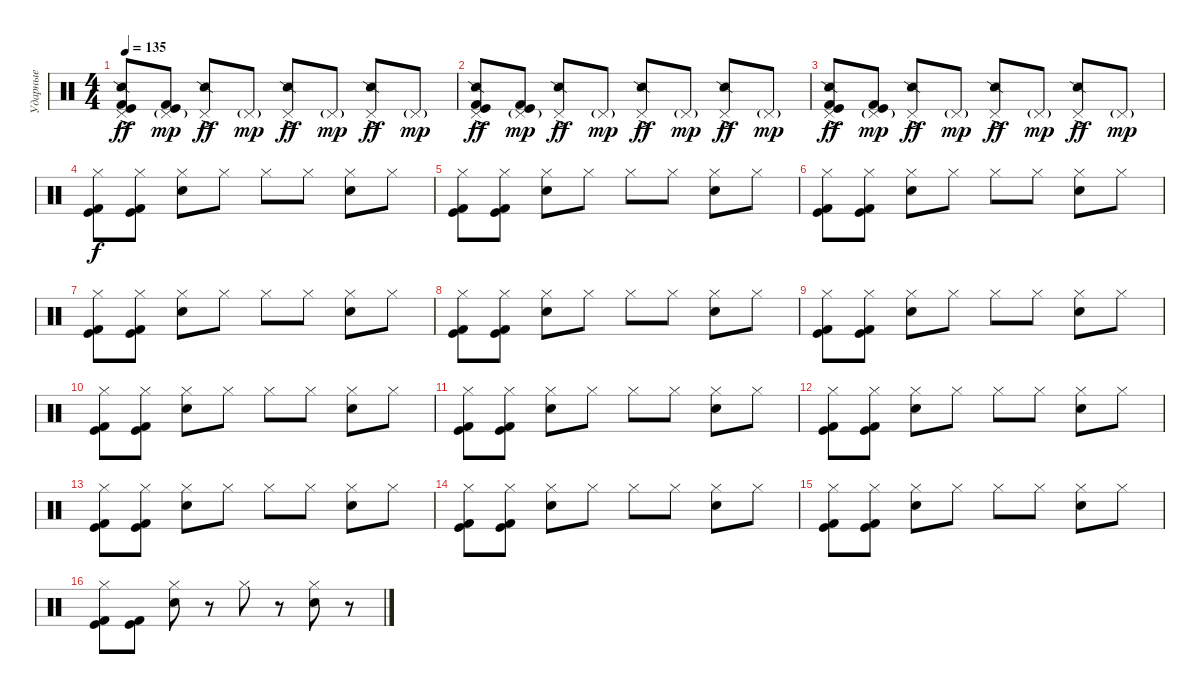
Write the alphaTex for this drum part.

\track ("Ударные" "Ударные") {instrument percussion}
\staff {score}
\articulation defaults
\ts (4 4)
\tempo 135
\clef neutral
\ks c
("Pedal Hi-Hat (hit)"{ac} "Kick (hit)" "Kick (hit) 2" "Snare (side stick) 2").8{dy ff} ("Pedal Hi-Hat (hit)"{g} "Kick (hit)" "Kick (hit) 2").8{dy mp} ("Pedal Hi-Hat (hit)"{ac} "Snare (side stick) 2").8{dy ff} "Pedal Hi-Hat (hit)"{g}.8{dy mp} ("Pedal Hi-Hat (hit)"{ac} "Snare (side stick) 2").8{dy ff} "Pedal Hi-Hat (hit)"{g}.8{dy mp} ("Pedal Hi-Hat (hit)"{ac} "Snare (side stick) 2").8{dy ff} "Pedal Hi-Hat (hit)"{g}.8{dy mp} |
("Pedal Hi-Hat (hit)"{ac} "Kick (hit)" "Kick (hit) 2" "Snare (side stick) 2").8{dy ff} ("Pedal Hi-Hat (hit)"{g} "Kick (hit)" "Kick (hit) 2").8{dy mp} ("Pedal Hi-Hat (hit)"{ac} "Snare (side stick) 2").8{dy ff} "Pedal Hi-Hat (hit)"{g}.8{dy mp} ("Pedal Hi-Hat (hit)"{ac} "Snare (side stick) 2").8{dy ff} "Pedal Hi-Hat (hit)"{g}.8{dy mp} ("Pedal Hi-Hat (hit)"{ac} "Snare (side stick) 2").8{dy ff} "Pedal Hi-Hat (hit)"{g}.8{dy mp} |
("Pedal Hi-Hat (hit)"{ac} "Kick (hit)" "Kick (hit) 2" "Snare (side stick) 2").8{dy ff} ("Pedal Hi-Hat (hit)"{g} "Kick (hit)" "Kick (hit) 2").8{dy mp} ("Pedal Hi-Hat (hit)"{ac} "Snare (side stick) 2").8{dy ff} "Pedal Hi-Hat (hit)"{g}.8{dy mp} ("Pedal Hi-Hat (hit)"{ac} "Snare (side stick) 2").8{dy ff} "Pedal Hi-Hat (hit)"{g}.8{dy mp} ("Pedal Hi-Hat (hit)"{ac} "Snare (side stick) 2").8{dy ff} "Pedal Hi-Hat (hit)"{g}.8{dy mp} |
("Hi-Hat (closed)" "Kick (hit)" "Kick (hit) 2").8{dy f} ("Hi-Hat (closed)" "Kick (hit)" "Kick (hit) 2").8 ("Hi-Hat (closed)" "Electric Snare (hit)").8 "Hi-Hat (closed)".8 "Hi-Hat (closed)".8 "Hi-Hat (closed)".8 ("Hi-Hat (closed)" "Electric Snare (hit)").8 "Hi-Hat (closed)".8 |
("Hi-Hat (closed)" "Kick (hit)" "Kick (hit) 2").8 ("Hi-Hat (closed)" "Kick (hit)" "Kick (hit) 2").8 ("Hi-Hat (closed)" "Electric Snare (hit)").8 "Hi-Hat (closed)".8 "Hi-Hat (closed)".8 "Hi-Hat (closed)".8 ("Hi-Hat (closed)" "Electric Snare (hit)").8 "Hi-Hat (closed)".8 |
("Hi-Hat (closed)" "Kick (hit)" "Kick (hit) 2").8 ("Hi-Hat (closed)" "Kick (hit)" "Kick (hit) 2").8 ("Hi-Hat (closed)" "Electric Snare (hit)").8 "Hi-Hat (closed)".8 "Hi-Hat (closed)".8 "Hi-Hat (closed)".8 ("Hi-Hat (closed)" "Electric Snare (hit)").8 "Hi-Hat (closed)".8 |
("Hi-Hat (closed)" "Kick (hit)" "Kick (hit) 2").8 ("Hi-Hat (closed)" "Kick (hit)" "Kick (hit) 2").8 ("Hi-Hat (closed)" "Electric Snare (hit)").8 "Hi-Hat (closed)".8 "Hi-Hat (closed)".8 "Hi-Hat (closed)".8 ("Hi-Hat (closed)" "Electric Snare (hit)").8 "Hi-Hat (closed)".8 |
("Hi-Hat (closed)" "Kick (hit)" "Kick (hit) 2").8 ("Hi-Hat (closed)" "Kick (hit)" "Kick (hit) 2").8 ("Hi-Hat (closed)" "Electric Snare (hit)").8 "Hi-Hat (closed)".8 "Hi-Hat (closed)".8 "Hi-Hat (closed)".8 ("Hi-Hat (closed)" "Electric Snare (hit)").8 "Hi-Hat (closed)".8 |
("Hi-Hat (closed)" "Kick (hit)" "Kick (hit) 2").8 ("Hi-Hat (closed)" "Kick (hit)" "Kick (hit) 2").8 ("Hi-Hat (closed)" "Electric Snare (hit)").8 "Hi-Hat (closed)".8 "Hi-Hat (closed)".8 "Hi-Hat (closed)".8 ("Hi-Hat (closed)" "Electric Snare (hit)").8 "Hi-Hat (closed)".8 |
("Hi-Hat (closed)" "Kick (hit)" "Kick (hit) 2").8 ("Hi-Hat (closed)" "Kick (hit)" "Kick (hit) 2").8 ("Hi-Hat (closed)" "Electric Snare (hit)").8 "Hi-Hat (closed)".8 "Hi-Hat (closed)".8 "Hi-Hat (closed)".8 ("Hi-Hat (closed)" "Electric Snare (hit)").8 "Hi-Hat (closed)".8 |
("Hi-Hat (closed)" "Kick (hit)" "Kick (hit) 2").8 ("Hi-Hat (closed)" "Kick (hit)" "Kick (hit) 2").8 ("Hi-Hat (closed)" "Electric Snare (hit)").8 "Hi-Hat (closed)".8 "Hi-Hat (closed)".8 "Hi-Hat (closed)".8 ("Hi-Hat (closed)" "Electric Snare (hit)").8 "Hi-Hat (closed)".8 |
("Hi-Hat (closed)" "Kick (hit)" "Kick (hit) 2").8 ("Hi-Hat (closed)" "Kick (hit)" "Kick (hit) 2").8 ("Hi-Hat (closed)" "Electric Snare (hit)").8 "Hi-Hat (closed)".8 "Hi-Hat (closed)".8 "Hi-Hat (closed)".8 ("Hi-Hat (closed)" "Electric Snare (hit)").8 "Hi-Hat (closed)".8 |
("Hi-Hat (closed)" "Kick (hit)" "Kick (hit) 2").8 ("Hi-Hat (closed)" "Kick (hit)" "Kick (hit) 2").8 ("Hi-Hat (closed)" "Electric Snare (hit)").8 "Hi-Hat (closed)".8 "Hi-Hat (closed)".8 "Hi-Hat (closed)".8 ("Hi-Hat (closed)" "Electric Snare (hit)").8 "Hi-Hat (closed)".8 |
("Hi-Hat (closed)" "Kick (hit)" "Kick (hit) 2").8 ("Hi-Hat (closed)" "Kick (hit)" "Kick (hit) 2").8 ("Hi-Hat (closed)" "Electric Snare (hit)").8 "Hi-Hat (closed)".8 "Hi-Hat (closed)".8 "Hi-Hat (closed)".8 ("Hi-Hat (closed)" "Electric Snare (hit)").8 "Hi-Hat (closed)".8 |
("Hi-Hat (closed)" "Kick (hit)" "Kick (hit) 2").8 ("Hi-Hat (closed)" "Kick (hit)" "Kick (hit) 2").8 ("Hi-Hat (closed)" "Electric Snare (hit)").8 "Hi-Hat (closed)".8 "Hi-Hat (closed)".8 "Hi-Hat (closed)".8 ("Hi-Hat (closed)" "Electric Snare (hit)").8 "Hi-Hat (closed)".8 |
("Hi-Hat (closed)" "Kick (hit)" "Kick (hit) 2").8 ("Kick (hit)" "Kick (hit) 2").8 ("Hi-Hat (closed)" "Electric Snare (hit)").8 r.8 "Hi-Hat (closed)".8 r.8 ("Hi-Hat (closed)" "Electric Snare (hit)").8 r.8
